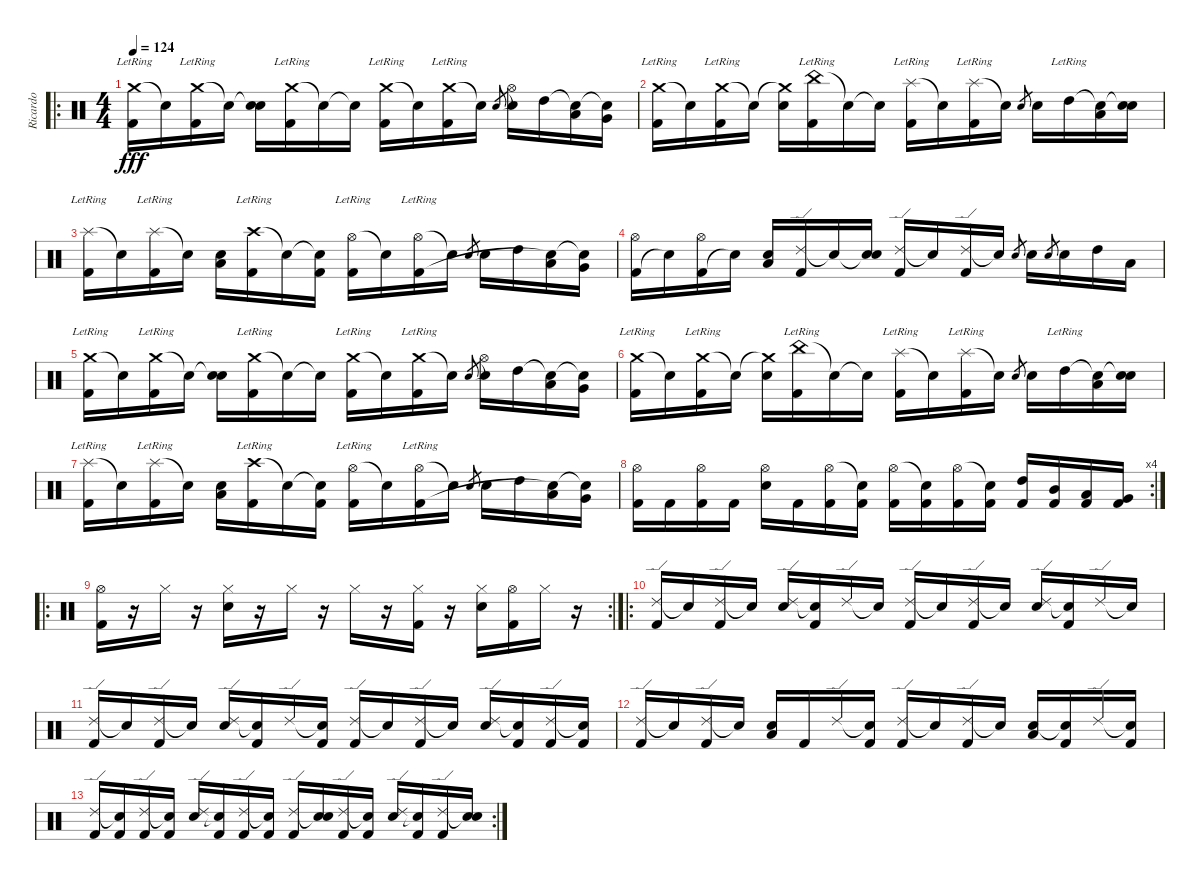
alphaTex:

\track ("Ricardo" "Ricardo") {instrument percussion}
\staff {score}
\articulation defaults
\ro
\ts (4 4)
\tempo 124
\clef neutral
\ks c
("Crash medium (hit)"{lr} "Kick (hit) 2").16{dy fff} "Snare (hit)"{t}.16 ("Crash medium (hit)"{lr} "Kick (hit) 2").16 "Snare (hit)"{t}.16 ("Snare (hit)"{t} "Electric Snare (hit)").16 ("Crash medium (hit)"{lr} "Kick (hit) 2").16 "Snare (hit)"{t}.16 "Snare (hit)"{t}.16 ("Crash medium (hit)"{lr} "Kick (hit) 2").16 "Snare (hit)"{t}.16 ("Crash medium (hit)"{lr} "Kick (hit) 2").16 "Electric Snare (hit)"{t}.16 "Electric Snare (hit)".8{gr} ("Hi-Hat (open)"{t} "Electric Snare (hit)").16 "High Tom (hit)".16 ("Snare (hit)"{t} "Low Tom (hit)").16 ("Snare (hit)"{t} "Very Low Tom (hit)").16 |
("Crash medium (hit)"{lr} "Kick (hit) 2").16 "Snare (hit)"{t}.16 ("Crash medium (hit)"{lr} "Kick (hit) 2").16 "Snare (hit)"{t}.16 ("Crash medium (hit)"{t} "Electric Snare (hit)").16 ("China (hit)"{lr} "Kick (hit) 2").16 "Snare (hit)"{t}.16 "Snare (hit)"{t}.16 ("Splash (hit)"{lr} "Kick (hit) 2").16 "Snare (hit)"{t}.16 ("Splash (hit)"{lr} "Kick (hit) 2").16 "Snare (hit)"{t}.16 "Electric Snare (hit)".8{gr} "Electric Snare (hit)".16 "High Tom (hit)"{lr}.16 ("Snare (hit)"{t} "Low Tom (hit)").16 ("Snare (hit)"{t} "Electric Snare (hit)").16 |
("Splash (hit)"{lr} "Kick (hit) 2").16 "Snare (hit)"{t}.16 ("Splash (hit)"{lr} "Kick (hit) 2").16 "Snare (hit)"{t}.16 ("Electric Snare (hit)" "Low Floor Tom (hit)").16 ("Crash high (hit)" "Kick (hit) 2"{lr}).16 "Snare (hit)"{t}.16 ("Snare (hit)"{t} "Kick (hit) 2").16 ("Hi-Hat (open)"{lr} "Kick (hit) 2").16 "Snare (hit)"{t}.16 ("Hi-Hat (open)"{lr} "Kick (hit) 2").16 "Snare (hit)"{t}.16 "Electric Snare (hit)".8{gr} "Electric Snare (hit)".16 "High Tom (hit)".16 ("Low Tom (hit)" "Snare (hit)"{t}).16 ("Very Low Tom (hit)" "Snare (hit)"{t}).16 |
("Kick (hit) 2" "Hi-Hat (open)").16 "Snare (hit)"{t}.16 ("Kick (hit) 2" "Hi-Hat (open)").16 "Snare (hit)"{t}.16 ("Low Floor Tom (hit)" "Electric Snare (hit)").16 ("Ride (edge) 2" "Kick (hit) 2").16 "Snare (hit)"{t}.16 ("Snare (hit)"{t} "Electric Snare (hit)").16 ("Ride (edge) 2" "Kick (hit) 2").16 "Snare (hit)"{t}.16 ("Ride (edge) 2" "Kick (hit) 2").16 "Snare (hit)"{t}.16 "Electric Snare (hit)".8{gr} "Electric Snare (hit)".16 "Electric Snare (hit)".8{gr} "Electric Snare (hit)".16 "High Tom (hit)".16 "Low Tom (hit)".16 |
("Crash medium (hit)"{lr} "Kick (hit) 2").16 "Snare (hit)"{t}.16 ("Crash medium (hit)"{lr} "Kick (hit) 2").16 "Snare (hit)"{t}.16 ("Snare (hit)"{t} "Electric Snare (hit)").16 ("Crash medium (hit)"{lr} "Kick (hit) 2").16 "Snare (hit)"{t}.16 "Snare (hit)"{t}.16 ("Crash medium (hit)"{lr} "Kick (hit) 2").16 "Snare (hit)"{t}.16 ("Crash medium (hit)"{lr} "Kick (hit) 2").16 "Electric Snare (hit)"{t}.16 "Electric Snare (hit)".8{gr} ("Hi-Hat (open)"{t} "Electric Snare (hit)").16 "High Tom (hit)".16 ("Snare (hit)"{t} "Low Tom (hit)").16 ("Snare (hit)"{t} "Very Low Tom (hit)").16 |
("Crash medium (hit)"{lr} "Kick (hit) 2").16 "Snare (hit)"{t}.16 ("Crash medium (hit)"{lr} "Kick (hit) 2").16 "Snare (hit)"{t}.16 ("Crash medium (hit)"{t} "Electric Snare (hit)").16 ("China (hit)"{lr} "Kick (hit) 2").16 "Snare (hit)"{t}.16 "Snare (hit)"{t}.16 ("Splash (hit)"{lr} "Kick (hit) 2").16 "Snare (hit)"{t}.16 ("Splash (hit)"{lr} "Kick (hit) 2").16 "Snare (hit)"{t}.16 "Electric Snare (hit)".8{gr} "Electric Snare (hit)".16 "High Tom (hit)"{lr}.16 ("Snare (hit)"{t} "Low Tom (hit)").16 ("Snare (hit)"{t} "Electric Snare (hit)").16 |
("Splash (hit)"{lr} "Kick (hit) 2").16 "Snare (hit)"{t}.16 ("Splash (hit)"{lr} "Kick (hit) 2").16 "Snare (hit)"{t}.16 ("Electric Snare (hit)" "Low Floor Tom (hit)").16 ("Crash high (hit)" "Kick (hit) 2"{lr}).16 "Snare (hit)"{t}.16 ("Snare (hit)"{t} "Kick (hit) 2").16 ("Hi-Hat (open)"{lr} "Kick (hit) 2").16 "Snare (hit)"{t}.16 ("Hi-Hat (open)"{lr} "Kick (hit) 2").16 "Snare (hit)"{t}.16 "Electric Snare (hit)".8{gr} "Electric Snare (hit)".16 "High Tom (hit)".16 ("Low Tom (hit)" "Snare (hit)"{t}).16 ("Very Low Tom (hit)" "Snare (hit)"{t}).16 |
\rc 4
("Hi-Hat (open)" "Kick (hit) 2").16 "Kick (hit) 2".16 ("Hi-Hat (open)" "Kick (hit) 2").16 "Kick (hit) 2".16 ("Hi-Hat (open)" "Electric Snare (hit)").16 "Kick (hit) 2".16 ("Hi-Hat (open)" "Kick (hit) 2").16 ("Snare (hit)"{t} "Kick (hit) 2").16 ("Hi-Hat (open)" "Kick (hit) 2").16 ("Snare (hit)"{t} "Kick (hit) 2").16 ("Hi-Hat (open)" "Kick (hit) 2").16 ("Snare (hit)"{t} "Kick (hit) 2").16 ("High Tom (hit)" "Kick (hit) 2").16 ("Mid Tom (hit)" "Kick (hit) 2").16 ("Low Tom (hit)" "Kick (hit) 2").16 ("Very Low Tom (hit)" "Kick (hit) 2").16 |
\ro
\rc 2
("Hi-Hat (open)" "Kick (hit) 2").16 r.16 "Hi-Hat (closed)".16 r.16 ("Hi-Hat (closed)" "Electric Snare (hit)").16 r.16 "Hi-Hat (closed)".16 r.16 "Hi-Hat (closed)".16 r.16 ("Hi-Hat (closed)" "Kick (hit) 2").16 r.16 ("Hi-Hat (closed)" "Electric Snare (hit)").16 ("Hi-Hat (open)" "Kick (hit) 2").16 "Hi-Hat (closed)".16 r.16 |
\ro
("Ride (edge) 2" "Kick (hit) 2").16 "Snare (hit)"{t}.16 ("Ride (edge) 2" "Kick (hit) 2").16 "Snare (hit)"{t}.16 ("Ride (edge) 2" "Electric Snare (hit)").16 ("Snare (hit)"{t} "Kick (hit) 2").16 "Ride (edge) 2".16 "Snare (hit)"{t}.16 ("Ride (edge) 2" "Kick (hit) 2").16 "Snare (hit)"{t}.16 ("Ride (edge) 2" "Kick (hit) 2").16 "Snare (hit)"{t}.16 ("Ride (edge) 2" "Electric Snare (hit)").16 ("Snare (hit)"{t} "Kick (hit) 2").16 "Ride (edge) 2".16 "Snare (hit)"{t}.16 |
("Ride (edge) 2" "Kick (hit) 2").16 "Snare (hit)"{t}.16 ("Ride (edge) 2" "Kick (hit) 2").16 "Snare (hit)"{t}.16 ("Ride (edge) 2" "Electric Snare (hit)").16 ("Snare (hit)"{t} "Kick (hit) 2").16 "Ride (edge) 2".16 ("Snare (hit)"{t} "Kick (hit) 2").16 ("Ride (edge) 2" "Kick (hit) 2").16 "Snare (hit)"{t}.16 ("Ride (edge) 2" "Kick (hit) 2").16 "Snare (hit)"{t}.16 ("Ride (edge) 2" "Electric Snare (hit)").16 ("Snare (hit)"{t} "Kick (hit) 2").16 ("Ride (edge) 2" "Kick (hit) 2").16 ("Snare (hit)"{t} "Kick (hit) 2").16 |
("Ride (edge) 2" "Kick (hit) 2").16 "Snare (hit)"{t}.16 ("Ride (edge) 2" "Kick (hit) 2").16 "Snare (hit)"{t}.16 ("Electric Snare (hit)" "Low Floor Tom (hit)").16 "Kick (hit) 2".16 "Ride (edge) 2".16 ("Snare (hit)"{t} "Kick (hit) 2").16 ("Ride (edge) 2" "Kick (hit) 2").16 "Snare (hit)"{t}.16 ("Ride (edge) 2" "Kick (hit) 2").16 "Snare (hit)"{t}.16 ("Electric Snare (hit)" "Low Floor Tom (hit)").16 ("Snare (hit)"{t} "Kick (hit) 2").16 "Ride (edge) 2".16 ("Snare (hit)"{t} "Kick (hit) 2").16 |
\rc 2
("Ride (edge) 2" "Kick (hit) 2").16 ("Snare (hit)"{t} "Kick (hit) 2").16 ("Ride (edge) 2" "Kick (hit) 2").16 ("Snare (hit)"{t} "Kick (hit) 2").16 ("Ride (edge) 2" "Electric Snare (hit)").16 ("Snare (hit)"{t} "Kick (hit) 2").16 ("Ride (edge) 2" "Kick (hit) 2").16 ("Snare (hit)"{t} "Kick (hit) 2").16 ("Ride (edge) 2" "Kick (hit) 2").16 ("Snare (hit)"{t} "Electric Snare (hit)").16 ("Ride (edge) 2" "Kick (hit) 2").16 ("Snare (hit)"{t} "Kick (hit) 2").16 ("Ride (edge) 2" "Electric Snare (hit)").16 ("Snare (hit)"{t} "Kick (hit) 2").16 ("Ride (edge) 2" "Kick (hit) 2").16 ("Snare (hit)"{t} "Electric Snare (hit)").16
